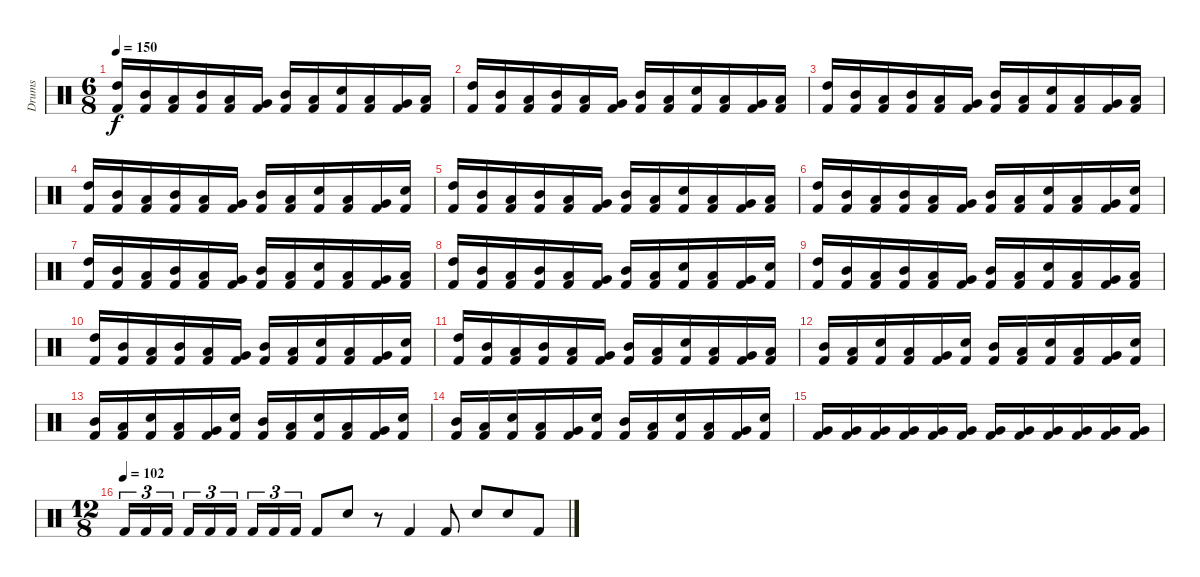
\track ("Drums" "Drums") {instrument percussion}
\staff {score}
\articulation defaults
\ts (6 8)
\tempo 150
\clef neutral
\ks c
("High Tom (hit)" "Kick (hit) 2").16{dy f} ("Mid Tom (hit)" "Kick (hit) 2").16 ("Low Tom (hit)" "Kick (hit) 2").16 ("Mid Tom (hit)" "Kick (hit) 2").16 ("Low Tom (hit)" "Kick (hit) 2").16 ("Very Low Tom (hit)" "Kick (hit) 2").16 ("Mid Tom (hit)" "Kick (hit) 2").16 ("Low Tom (hit)" "Kick (hit) 2").16 ("Electric Snare (hit)" "Kick (hit) 2").16 ("Low Tom (hit)" "Kick (hit) 2").16 ("Very Low Tom (hit)" "Kick (hit) 2").16 ("Low Floor Tom (hit)" "Kick (hit) 2").16 |
("High Tom (hit)" "Kick (hit) 2").16 ("Mid Tom (hit)" "Kick (hit) 2").16 ("Low Tom (hit)" "Kick (hit) 2").16 ("Mid Tom (hit)" "Kick (hit) 2").16 ("Low Tom (hit)" "Kick (hit) 2").16 ("Very Low Tom (hit)" "Kick (hit) 2").16 ("Mid Tom (hit)" "Kick (hit) 2").16 ("Low Tom (hit)" "Kick (hit) 2").16 ("Electric Snare (hit)" "Kick (hit) 2").16 ("Low Tom (hit)" "Kick (hit) 2").16 ("Very Low Tom (hit)" "Kick (hit) 2").16 ("Low Floor Tom (hit)" "Kick (hit) 2").16 |
("High Tom (hit)" "Kick (hit) 2").16 ("Mid Tom (hit)" "Kick (hit) 2").16 ("Low Tom (hit)" "Kick (hit) 2").16 ("Mid Tom (hit)" "Kick (hit) 2").16 ("Low Tom (hit)" "Kick (hit) 2").16 ("Very Low Tom (hit)" "Kick (hit) 2").16 ("Mid Tom (hit)" "Kick (hit) 2").16 ("Low Tom (hit)" "Kick (hit) 2").16 ("Electric Snare (hit)" "Kick (hit) 2").16 ("Low Tom (hit)" "Kick (hit) 2").16 ("Very Low Tom (hit)" "Kick (hit) 2").16 ("Low Floor Tom (hit)" "Kick (hit) 2").16 |
("High Tom (hit)" "Kick (hit) 2").16 ("Mid Tom (hit)" "Kick (hit) 2").16 ("Low Tom (hit)" "Kick (hit) 2").16 ("Mid Tom (hit)" "Kick (hit) 2").16 ("Low Tom (hit)" "Kick (hit) 2").16 ("Very Low Tom (hit)" "Kick (hit) 2").16 ("Mid Tom (hit)" "Kick (hit) 2").16 ("Low Tom (hit)" "Kick (hit) 2").16 ("Electric Snare (hit)" "Kick (hit) 2").16 ("Low Tom (hit)" "Kick (hit) 2").16 ("Very Low Tom (hit)" "Kick (hit) 2").16 ("Electric Snare (hit)" "Kick (hit) 2").16 |
("High Tom (hit)" "Kick (hit) 2").16 ("Mid Tom (hit)" "Kick (hit) 2").16 ("Low Tom (hit)" "Kick (hit) 2").16 ("Mid Tom (hit)" "Kick (hit) 2").16 ("Low Tom (hit)" "Kick (hit) 2").16 ("Very Low Tom (hit)" "Kick (hit) 2").16 ("Mid Tom (hit)" "Kick (hit) 2").16 ("Low Tom (hit)" "Kick (hit) 2").16 ("Electric Snare (hit)" "Kick (hit) 2").16 ("Low Tom (hit)" "Kick (hit) 2").16 ("Very Low Tom (hit)" "Kick (hit) 2").16 ("Low Floor Tom (hit)" "Kick (hit) 2").16 |
("High Tom (hit)" "Kick (hit) 2").16 ("Mid Tom (hit)" "Kick (hit) 2").16 ("Low Tom (hit)" "Kick (hit) 2").16 ("Mid Tom (hit)" "Kick (hit) 2").16 ("Low Tom (hit)" "Kick (hit) 2").16 ("Very Low Tom (hit)" "Kick (hit) 2").16 ("Mid Tom (hit)" "Kick (hit) 2").16 ("Low Tom (hit)" "Kick (hit) 2").16 ("Electric Snare (hit)" "Kick (hit) 2").16 ("Low Tom (hit)" "Kick (hit) 2").16 ("Very Low Tom (hit)" "Kick (hit) 2").16 ("Electric Snare (hit)" "Kick (hit) 2").16 |
("High Tom (hit)" "Kick (hit) 2").16 ("Mid Tom (hit)" "Kick (hit) 2").16 ("Low Tom (hit)" "Kick (hit) 2").16 ("Mid Tom (hit)" "Kick (hit) 2").16 ("Low Tom (hit)" "Kick (hit) 2").16 ("Very Low Tom (hit)" "Kick (hit) 2").16 ("Mid Tom (hit)" "Kick (hit) 2").16 ("Low Tom (hit)" "Kick (hit) 2").16 ("Electric Snare (hit)" "Kick (hit) 2").16 ("Low Tom (hit)" "Kick (hit) 2").16 ("Very Low Tom (hit)" "Kick (hit) 2").16 ("Low Floor Tom (hit)" "Kick (hit) 2").16 |
("High Tom (hit)" "Kick (hit) 2").16 ("Mid Tom (hit)" "Kick (hit) 2").16 ("Low Tom (hit)" "Kick (hit) 2").16 ("Mid Tom (hit)" "Kick (hit) 2").16 ("Low Tom (hit)" "Kick (hit) 2").16 ("Very Low Tom (hit)" "Kick (hit) 2").16 ("Mid Tom (hit)" "Kick (hit) 2").16 ("Low Tom (hit)" "Kick (hit) 2").16 ("Electric Snare (hit)" "Kick (hit) 2").16 ("Low Tom (hit)" "Kick (hit) 2").16 ("Very Low Tom (hit)" "Kick (hit) 2").16 ("Electric Snare (hit)" "Kick (hit) 2").16 |
("High Tom (hit)" "Kick (hit) 2").16 ("Mid Tom (hit)" "Kick (hit) 2").16 ("Low Tom (hit)" "Kick (hit) 2").16 ("Mid Tom (hit)" "Kick (hit) 2").16 ("Low Tom (hit)" "Kick (hit) 2").16 ("Very Low Tom (hit)" "Kick (hit) 2").16 ("Mid Tom (hit)" "Kick (hit) 2").16 ("Low Tom (hit)" "Kick (hit) 2").16 ("Electric Snare (hit)" "Kick (hit) 2").16 ("Low Tom (hit)" "Kick (hit) 2").16 ("Very Low Tom (hit)" "Kick (hit) 2").16 ("Low Floor Tom (hit)" "Kick (hit) 2").16 |
("High Tom (hit)" "Kick (hit) 2").16 ("Mid Tom (hit)" "Kick (hit) 2").16 ("Low Tom (hit)" "Kick (hit) 2").16 ("Mid Tom (hit)" "Kick (hit) 2").16 ("Low Tom (hit)" "Kick (hit) 2").16 ("Very Low Tom (hit)" "Kick (hit) 2").16 ("Mid Tom (hit)" "Kick (hit) 2").16 ("Low Tom (hit)" "Kick (hit) 2").16 ("Electric Snare (hit)" "Kick (hit) 2").16 ("Low Tom (hit)" "Kick (hit) 2").16 ("Very Low Tom (hit)" "Kick (hit) 2").16 ("Electric Snare (hit)" "Kick (hit) 2").16 |
("High Tom (hit)" "Kick (hit) 2").16 ("Mid Tom (hit)" "Kick (hit) 2").16 ("Low Tom (hit)" "Kick (hit) 2").16 ("Mid Tom (hit)" "Kick (hit) 2").16 ("Low Tom (hit)" "Kick (hit) 2").16 ("Very Low Tom (hit)" "Kick (hit) 2").16 ("Mid Tom (hit)" "Kick (hit) 2").16 ("Low Tom (hit)" "Kick (hit) 2").16 ("Electric Snare (hit)" "Kick (hit) 2").16 ("Low Tom (hit)" "Kick (hit) 2").16 ("Very Low Tom (hit)" "Kick (hit) 2").16 ("Low Floor Tom (hit)" "Kick (hit) 2").16 |
("Mid Tom (hit)" "Kick (hit) 2").16 ("Low Tom (hit)" "Kick (hit) 2").16 ("Electric Snare (hit)" "Kick (hit) 2").16 ("Low Tom (hit)" "Kick (hit) 2").16 ("Very Low Tom (hit)" "Kick (hit) 2").16 ("Electric Snare (hit)" "Kick (hit) 2").16 ("Mid Tom (hit)" "Kick (hit) 2").16 ("Low Tom (hit)" "Kick (hit) 2").16 ("Electric Snare (hit)" "Kick (hit) 2").16 ("Low Tom (hit)" "Kick (hit) 2").16 ("Very Low Tom (hit)" "Kick (hit) 2").16 ("Electric Snare (hit)" "Kick (hit) 2").16 |
("Mid Tom (hit)" "Kick (hit) 2").16 ("Low Tom (hit)" "Kick (hit) 2").16 ("Electric Snare (hit)" "Kick (hit) 2").16 ("Low Tom (hit)" "Kick (hit) 2").16 ("Very Low Tom (hit)" "Kick (hit) 2").16 ("Electric Snare (hit)" "Kick (hit) 2").16 ("Mid Tom (hit)" "Kick (hit) 2").16 ("Low Tom (hit)" "Kick (hit) 2").16 ("Electric Snare (hit)" "Kick (hit) 2").16 ("Low Tom (hit)" "Kick (hit) 2").16 ("Very Low Tom (hit)" "Kick (hit) 2").16 ("Electric Snare (hit)" "Kick (hit) 2").16 |
("Mid Tom (hit)" "Kick (hit) 2").16 ("Low Tom (hit)" "Kick (hit) 2").16 ("Electric Snare (hit)" "Kick (hit) 2").16 ("Low Tom (hit)" "Kick (hit) 2").16 ("Very Low Tom (hit)" "Kick (hit) 2").16 ("Electric Snare (hit)" "Kick (hit) 2").16 ("Mid Tom (hit)" "Kick (hit) 2").16 ("Low Tom (hit)" "Kick (hit) 2").16 ("Electric Snare (hit)" "Kick (hit) 2").16 ("Low Tom (hit)" "Kick (hit) 2").16 ("Very Low Tom (hit)" "Kick (hit) 2").16 ("Electric Snare (hit)" "Kick (hit) 2").16 |
("Very Low Tom (hit)" "Kick (hit) 2").16 ("Very Low Tom (hit)" "Kick (hit) 2").16 ("Very Low Tom (hit)" "Kick (hit) 2").16 ("Very Low Tom (hit)" "Kick (hit) 2").16 ("Very Low Tom (hit)" "Kick (hit) 2").16 ("Very Low Tom (hit)" "Kick (hit) 2").16 ("Very Low Tom (hit)" "Kick (hit) 2").16 ("Very Low Tom (hit)" "Kick (hit) 2").16 ("Very Low Tom (hit)" "Kick (hit) 2").16 ("Very Low Tom (hit)" "Kick (hit) 2").16 ("Very Low Tom (hit)" "Kick (hit) 2").16 ("Very Low Tom (hit)" "Kick (hit) 2").16 |
\ts (12 8)
\tempo (102)
"Kick (hit) 2".16{tu (3 2)} "Kick (hit) 2".16{tu (3 2)} "Kick (hit) 2".16{tu (3 2) beam splitsecondary} "Kick (hit) 2".16{tu (3 2)} "Kick (hit) 2".16{tu (3 2)} "Kick (hit) 2".16{tu (3 2) beam splitsecondary} "Kick (hit) 2".16{tu (3 2)} "Kick (hit) 2".16{tu (3 2)} "Kick (hit) 2".16{tu (3 2)} "Kick (hit) 2".8 "Electric Snare (hit)".8 r.8 "Kick (hit) 2".4 "Kick (hit) 2".8 "Electric Snare (hit)".8 "Electric Snare (hit)".8 "Kick (hit) 2".8
